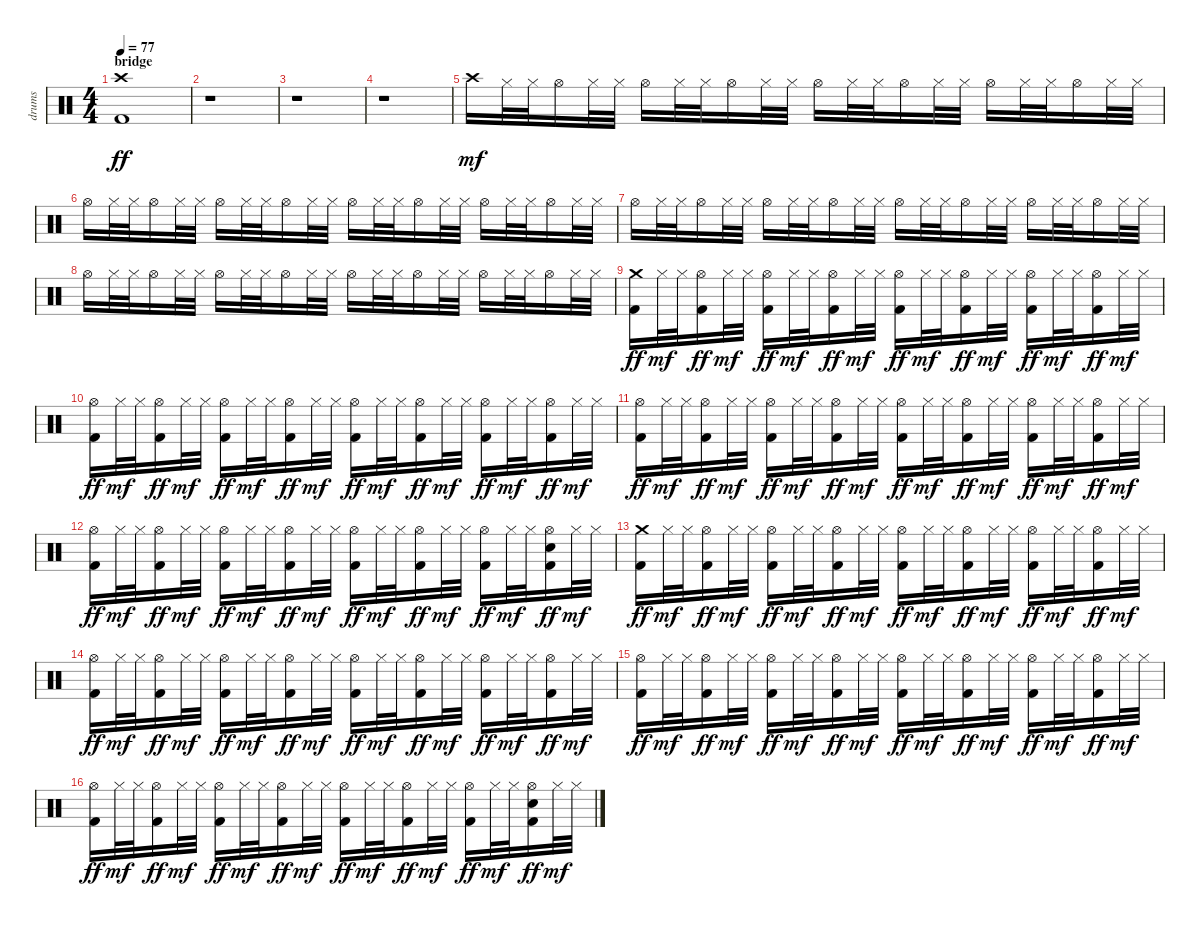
\track ("drums" "drums") {instrument percussion}
\staff {score}
\articulation defaults
\ts (4 4)
\section ("" "bridge")
\tempo 77
\clef neutral
\ks c
("Crash high (hit)" "Kick (hit) 2").1{dy ff} |
r.1 |
r.1 |
r.1 |
"Crash high (hit)".16{dy mf} "Hi-Hat (closed)".32 "Hi-Hat (closed)".32 "Hi-Hat (open)".16 "Hi-Hat (closed)".32 "Hi-Hat (closed)".32 "Hi-Hat (open)".16 "Hi-Hat (closed)".32 "Hi-Hat (closed)".32 "Hi-Hat (open)".16 "Hi-Hat (closed)".32 "Hi-Hat (closed)".32 "Hi-Hat (open)".16 "Hi-Hat (closed)".32 "Hi-Hat (closed)".32 "Hi-Hat (open)".16 "Hi-Hat (closed)".32 "Hi-Hat (closed)".32 "Hi-Hat (open)".16 "Hi-Hat (closed)".32 "Hi-Hat (closed)".32 "Hi-Hat (open)".16 "Hi-Hat (closed)".32 "Hi-Hat (closed)".32 |
"Hi-Hat (open)".16 "Hi-Hat (closed)".32 "Hi-Hat (closed)".32 "Hi-Hat (open)".16 "Hi-Hat (closed)".32 "Hi-Hat (closed)".32 "Hi-Hat (open)".16 "Hi-Hat (closed)".32 "Hi-Hat (closed)".32 "Hi-Hat (open)".16 "Hi-Hat (closed)".32 "Hi-Hat (closed)".32 "Hi-Hat (open)".16 "Hi-Hat (closed)".32 "Hi-Hat (closed)".32 "Hi-Hat (open)".16 "Hi-Hat (closed)".32 "Hi-Hat (closed)".32 "Hi-Hat (open)".16 "Hi-Hat (closed)".32 "Hi-Hat (closed)".32 "Hi-Hat (open)".16 "Hi-Hat (closed)".32 "Hi-Hat (closed)".32 |
"Hi-Hat (open)".16 "Hi-Hat (closed)".32 "Hi-Hat (closed)".32 "Hi-Hat (open)".16 "Hi-Hat (closed)".32 "Hi-Hat (closed)".32 "Hi-Hat (open)".16 "Hi-Hat (closed)".32 "Hi-Hat (closed)".32 "Hi-Hat (open)".16 "Hi-Hat (closed)".32 "Hi-Hat (closed)".32 "Hi-Hat (open)".16 "Hi-Hat (closed)".32 "Hi-Hat (closed)".32 "Hi-Hat (open)".16 "Hi-Hat (closed)".32 "Hi-Hat (closed)".32 "Hi-Hat (open)".16 "Hi-Hat (closed)".32 "Hi-Hat (closed)".32 "Hi-Hat (open)".16 "Hi-Hat (closed)".32 "Hi-Hat (closed)".32 |
"Hi-Hat (open)".16 "Hi-Hat (closed)".32 "Hi-Hat (closed)".32 "Hi-Hat (open)".16 "Hi-Hat (closed)".32 "Hi-Hat (closed)".32 "Hi-Hat (open)".16 "Hi-Hat (closed)".32 "Hi-Hat (closed)".32 "Hi-Hat (open)".16 "Hi-Hat (closed)".32 "Hi-Hat (closed)".32 "Hi-Hat (open)".16 "Hi-Hat (closed)".32 "Hi-Hat (closed)".32 "Hi-Hat (open)".16 "Hi-Hat (closed)".32 "Hi-Hat (closed)".32 "Hi-Hat (open)".16 "Hi-Hat (closed)".32 "Hi-Hat (closed)".32 "Hi-Hat (open)".16 "Hi-Hat (closed)".32 "Hi-Hat (closed)".32 |
\section ("" "")
("Crash medium (hit)" "Kick (hit) 2").16{dy ff} "Hi-Hat (closed)".32{dy mf} "Hi-Hat (closed)".32 ("Hi-Hat (open)" "Kick (hit) 2").16{dy ff} "Hi-Hat (closed)".32{dy mf} "Hi-Hat (closed)".32 ("Hi-Hat (open)" "Kick (hit) 2").16{dy ff} "Hi-Hat (closed)".32{dy mf} "Hi-Hat (closed)".32 ("Hi-Hat (open)" "Kick (hit) 2").16{dy ff} "Hi-Hat (closed)".32{dy mf} "Hi-Hat (closed)".32 ("Hi-Hat (open)" "Kick (hit) 2").16{dy ff} "Hi-Hat (closed)".32{dy mf} "Hi-Hat (closed)".32 ("Hi-Hat (open)" "Kick (hit) 2").16{dy ff} "Hi-Hat (closed)".32{dy mf} "Hi-Hat (closed)".32 ("Hi-Hat (open)" "Kick (hit) 2").16{dy ff} "Hi-Hat (closed)".32{dy mf} "Hi-Hat (closed)".32 ("Hi-Hat (open)" "Kick (hit) 2").16{dy ff} "Hi-Hat (closed)".32{dy mf} "Hi-Hat (closed)".32 |
("Hi-Hat (open)" "Kick (hit) 2").16{dy ff} "Hi-Hat (closed)".32{dy mf} "Hi-Hat (closed)".32 ("Hi-Hat (open)" "Kick (hit) 2").16{dy ff} "Hi-Hat (closed)".32{dy mf} "Hi-Hat (closed)".32 ("Hi-Hat (open)" "Kick (hit) 2").16{dy ff} "Hi-Hat (closed)".32{dy mf} "Hi-Hat (closed)".32 ("Hi-Hat (open)" "Kick (hit) 2").16{dy ff} "Hi-Hat (closed)".32{dy mf} "Hi-Hat (closed)".32 ("Hi-Hat (open)" "Kick (hit) 2").16{dy ff} "Hi-Hat (closed)".32{dy mf} "Hi-Hat (closed)".32 ("Hi-Hat (open)" "Kick (hit) 2").16{dy ff} "Hi-Hat (closed)".32{dy mf} "Hi-Hat (closed)".32 ("Hi-Hat (open)" "Kick (hit) 2").16{dy ff} "Hi-Hat (closed)".32{dy mf} "Hi-Hat (closed)".32 ("Hi-Hat (open)" "Kick (hit) 2").16{dy ff} "Hi-Hat (closed)".32{dy mf} "Hi-Hat (closed)".32 |
("Hi-Hat (open)" "Kick (hit) 2").16{dy ff} "Hi-Hat (closed)".32{dy mf} "Hi-Hat (closed)".32 ("Hi-Hat (open)" "Kick (hit) 2").16{dy ff} "Hi-Hat (closed)".32{dy mf} "Hi-Hat (closed)".32 ("Hi-Hat (open)" "Kick (hit) 2").16{dy ff} "Hi-Hat (closed)".32{dy mf} "Hi-Hat (closed)".32 ("Hi-Hat (open)" "Kick (hit) 2").16{dy ff} "Hi-Hat (closed)".32{dy mf} "Hi-Hat (closed)".32 ("Hi-Hat (open)" "Kick (hit) 2").16{dy ff} "Hi-Hat (closed)".32{dy mf} "Hi-Hat (closed)".32 ("Hi-Hat (open)" "Kick (hit) 2").16{dy ff} "Hi-Hat (closed)".32{dy mf} "Hi-Hat (closed)".32 ("Hi-Hat (open)" "Kick (hit) 2").16{dy ff} "Hi-Hat (closed)".32{dy mf} "Hi-Hat (closed)".32 ("Hi-Hat (open)" "Kick (hit) 2").16{dy ff} "Hi-Hat (closed)".32{dy mf} "Hi-Hat (closed)".32 |
("Hi-Hat (open)" "Kick (hit) 2").16{dy ff} "Hi-Hat (closed)".32{dy mf} "Hi-Hat (closed)".32 ("Hi-Hat (open)" "Kick (hit) 2").16{dy ff} "Hi-Hat (closed)".32{dy mf} "Hi-Hat (closed)".32 ("Hi-Hat (open)" "Kick (hit) 2").16{dy ff} "Hi-Hat (closed)".32{dy mf} "Hi-Hat (closed)".32 ("Hi-Hat (open)" "Kick (hit) 2").16{dy ff} "Hi-Hat (closed)".32{dy mf} "Hi-Hat (closed)".32 ("Hi-Hat (open)" "Kick (hit) 2").16{dy ff} "Hi-Hat (closed)".32{dy mf} "Hi-Hat (closed)".32 ("Hi-Hat (open)" "Kick (hit) 2").16{dy ff} "Hi-Hat (closed)".32{dy mf} "Hi-Hat (closed)".32 ("Hi-Hat (open)" "Kick (hit) 2").16{dy ff} "Hi-Hat (closed)".32{dy mf} "Hi-Hat (closed)".32 ("Hi-Hat (open)" "Snare (hit) 2" "Kick (hit) 2").16{dy ff} "Hi-Hat (closed)".32{dy mf} "Hi-Hat (closed)".32 |
("Crash medium (hit)" "Kick (hit) 2").16{dy ff} "Hi-Hat (closed)".32{dy mf} "Hi-Hat (closed)".32 ("Hi-Hat (open)" "Kick (hit) 2").16{dy ff} "Hi-Hat (closed)".32{dy mf} "Hi-Hat (closed)".32 ("Hi-Hat (open)" "Kick (hit) 2").16{dy ff} "Hi-Hat (closed)".32{dy mf} "Hi-Hat (closed)".32 ("Hi-Hat (open)" "Kick (hit) 2").16{dy ff} "Hi-Hat (closed)".32{dy mf} "Hi-Hat (closed)".32 ("Hi-Hat (open)" "Kick (hit) 2").16{dy ff} "Hi-Hat (closed)".32{dy mf} "Hi-Hat (closed)".32 ("Hi-Hat (open)" "Kick (hit) 2").16{dy ff} "Hi-Hat (closed)".32{dy mf} "Hi-Hat (closed)".32 ("Hi-Hat (open)" "Kick (hit) 2").16{dy ff} "Hi-Hat (closed)".32{dy mf} "Hi-Hat (closed)".32 ("Hi-Hat (open)" "Kick (hit) 2").16{dy ff} "Hi-Hat (closed)".32{dy mf} "Hi-Hat (closed)".32 |
("Hi-Hat (open)" "Kick (hit) 2").16{dy ff} "Hi-Hat (closed)".32{dy mf} "Hi-Hat (closed)".32 ("Hi-Hat (open)" "Kick (hit) 2").16{dy ff} "Hi-Hat (closed)".32{dy mf} "Hi-Hat (closed)".32 ("Hi-Hat (open)" "Kick (hit) 2").16{dy ff} "Hi-Hat (closed)".32{dy mf} "Hi-Hat (closed)".32 ("Hi-Hat (open)" "Kick (hit) 2").16{dy ff} "Hi-Hat (closed)".32{dy mf} "Hi-Hat (closed)".32 ("Hi-Hat (open)" "Kick (hit) 2").16{dy ff} "Hi-Hat (closed)".32{dy mf} "Hi-Hat (closed)".32 ("Hi-Hat (open)" "Kick (hit) 2").16{dy ff} "Hi-Hat (closed)".32{dy mf} "Hi-Hat (closed)".32 ("Hi-Hat (open)" "Kick (hit) 2").16{dy ff} "Hi-Hat (closed)".32{dy mf} "Hi-Hat (closed)".32 ("Hi-Hat (open)" "Kick (hit) 2").16{dy ff} "Hi-Hat (closed)".32{dy mf} "Hi-Hat (closed)".32 |
("Hi-Hat (open)" "Kick (hit) 2").16{dy ff} "Hi-Hat (closed)".32{dy mf} "Hi-Hat (closed)".32 ("Hi-Hat (open)" "Kick (hit) 2").16{dy ff} "Hi-Hat (closed)".32{dy mf} "Hi-Hat (closed)".32 ("Hi-Hat (open)" "Kick (hit) 2").16{dy ff} "Hi-Hat (closed)".32{dy mf} "Hi-Hat (closed)".32 ("Hi-Hat (open)" "Kick (hit) 2").16{dy ff} "Hi-Hat (closed)".32{dy mf} "Hi-Hat (closed)".32 ("Hi-Hat (open)" "Kick (hit) 2").16{dy ff} "Hi-Hat (closed)".32{dy mf} "Hi-Hat (closed)".32 ("Hi-Hat (open)" "Kick (hit) 2").16{dy ff} "Hi-Hat (closed)".32{dy mf} "Hi-Hat (closed)".32 ("Hi-Hat (open)" "Kick (hit) 2").16{dy ff} "Hi-Hat (closed)".32{dy mf} "Hi-Hat (closed)".32 ("Hi-Hat (open)" "Kick (hit) 2").16{dy ff} "Hi-Hat (closed)".32{dy mf} "Hi-Hat (closed)".32 |
("Hi-Hat (open)" "Kick (hit) 2").16{dy ff} "Hi-Hat (closed)".32{dy mf} "Hi-Hat (closed)".32 ("Hi-Hat (open)" "Kick (hit) 2").16{dy ff} "Hi-Hat (closed)".32{dy mf} "Hi-Hat (closed)".32 ("Hi-Hat (open)" "Kick (hit) 2").16{dy ff} "Hi-Hat (closed)".32{dy mf} "Hi-Hat (closed)".32 ("Hi-Hat (open)" "Kick (hit) 2").16{dy ff} "Hi-Hat (closed)".32{dy mf} "Hi-Hat (closed)".32 ("Hi-Hat (open)" "Kick (hit) 2").16{dy ff} "Hi-Hat (closed)".32{dy mf} "Hi-Hat (closed)".32 ("Hi-Hat (open)" "Kick (hit) 2").16{dy ff} "Hi-Hat (closed)".32{dy mf} "Hi-Hat (closed)".32 ("Hi-Hat (open)" "Kick (hit) 2").16{dy ff} "Hi-Hat (closed)".32{dy mf} "Hi-Hat (closed)".32 ("Hi-Hat (open)" "Snare (hit) 2" "Kick (hit) 2").16{dy ff} "Hi-Hat (closed)".32{dy mf} "Hi-Hat (closed)".32
